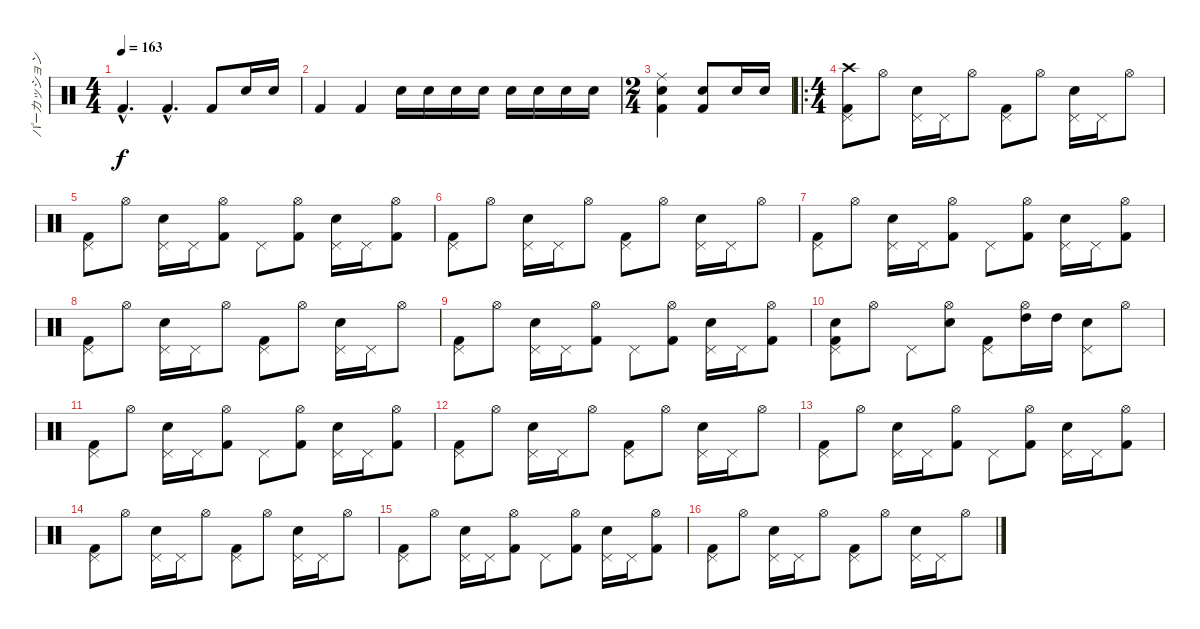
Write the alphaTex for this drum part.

\track ("パーカッション" "パーカッション") {instrument percussion}
\staff {score}
\articulation defaults
\ts (4 4)
\tempo 163
\clef neutral
\ks c "Kick (hit) 2"{hac}.4{d dy f} "Kick (hit) 2"{hac}.4{d} "Kick (hit) 2".8 "Snare (hit) 2".16 "Snare (hit) 2".16
|
"Kick (hit) 2".4 "Kick (hit) 2".4 "Snare (hit) 2".16 "Snare (hit) 2".16 "Snare (hit) 2".16 "Snare (hit) 2".16 "Snare (hit) 2".16 "Snare (hit) 2".16 "Snare (hit) 2".16 "Snare (hit) 2".16 |
\ts (2 4)
("Ride (middle)" "Snare (hit) 2" "Kick (hit) 2").4 ("Snare (hit) 2" "Kick (hit) 2").8 "Snare (hit) 2".16 "Snare (hit) 2".16 |
\ro
\ts (4 4)
("Crash high (hit)" "Pedal Hi-Hat (hit)" "Kick (hit) 2").8 "Hi-Hat (open)".8 ("Pedal Hi-Hat (hit)" "Snare (hit) 2").16 "Pedal Hi-Hat (hit)".16 "Hi-Hat (open)".8 ("Pedal Hi-Hat (hit)" "Kick (hit) 2").8 "Hi-Hat (open)".8 ("Pedal Hi-Hat (hit)" "Snare (hit) 2").16 "Pedal Hi-Hat (hit)".16 "Hi-Hat (open)".8 |
("Pedal Hi-Hat (hit)" "Kick (hit) 2").8 "Hi-Hat (open)".8 ("Pedal Hi-Hat (hit)" "Snare (hit) 2").16 "Pedal Hi-Hat (hit)".16 ("Hi-Hat (open)" "Kick (hit) 2").8 "Pedal Hi-Hat (hit)".8 ("Hi-Hat (open)" "Kick (hit) 2").8 ("Pedal Hi-Hat (hit)" "Snare (hit) 2").16 "Pedal Hi-Hat (hit)".16 ("Hi-Hat (open)" "Kick (hit) 2").8 |
("Pedal Hi-Hat (hit)" "Kick (hit) 2").8 "Hi-Hat (open)".8 ("Pedal Hi-Hat (hit)" "Snare (hit) 2").16 "Pedal Hi-Hat (hit)".16 "Hi-Hat (open)".8 ("Pedal Hi-Hat (hit)" "Kick (hit) 2").8 "Hi-Hat (open)".8 ("Pedal Hi-Hat (hit)" "Snare (hit) 2").16 "Pedal Hi-Hat (hit)".16 "Hi-Hat (open)".8 |
("Pedal Hi-Hat (hit)" "Kick (hit) 2").8 "Hi-Hat (open)".8 ("Pedal Hi-Hat (hit)" "Snare (hit) 2").16 "Pedal Hi-Hat (hit)".16 ("Hi-Hat (open)" "Kick (hit) 2").8 "Pedal Hi-Hat (hit)".8 ("Hi-Hat (open)" "Kick (hit) 2").8 ("Pedal Hi-Hat (hit)" "Snare (hit) 2").16 "Pedal Hi-Hat (hit)".16 ("Hi-Hat (open)" "Kick (hit) 2").8 |
("Pedal Hi-Hat (hit)" "Kick (hit) 2").8 "Hi-Hat (open)".8 ("Pedal Hi-Hat (hit)" "Snare (hit) 2").16 "Pedal Hi-Hat (hit)".16 "Hi-Hat (open)".8 ("Pedal Hi-Hat (hit)" "Kick (hit) 2").8 "Hi-Hat (open)".8 ("Pedal Hi-Hat (hit)" "Snare (hit) 2").16 "Pedal Hi-Hat (hit)".16 "Hi-Hat (open)".8 |
("Pedal Hi-Hat (hit)" "Kick (hit) 2").8 "Hi-Hat (open)".8 ("Pedal Hi-Hat (hit)" "Snare (hit) 2").16 "Pedal Hi-Hat (hit)".16 ("Hi-Hat (open)" "Kick (hit) 2").8 "Pedal Hi-Hat (hit)".8 ("Hi-Hat (open)" "Kick (hit) 2").8 ("Pedal Hi-Hat (hit)" "Snare (hit) 2").16 "Pedal Hi-Hat (hit)".16 ("Hi-Hat (open)" "Kick (hit) 2").8 |
("Pedal Hi-Hat (hit)" "Snare (hit) 2" "Kick (hit) 2").8 "Hi-Hat (open)".8 "Pedal Hi-Hat (hit)".8 ("Hi-Hat (open)" "Snare (hit) 2").8 ("Pedal Hi-Hat (hit)" "Kick (hit) 2").8 ("Hi-Hat (open)" "High Tom (hit)").16 "High Tom (hit)".16 ("Pedal Hi-Hat (hit)" "Snare (hit) 2").8 "Hi-Hat (open)".8 |
("Pedal Hi-Hat (hit)" "Kick (hit) 2").8 "Hi-Hat (open)".8 ("Pedal Hi-Hat (hit)" "Snare (hit) 2").16 "Pedal Hi-Hat (hit)".16 ("Hi-Hat (open)" "Kick (hit) 2").8 "Pedal Hi-Hat (hit)".8 ("Hi-Hat (open)" "Kick (hit) 2").8 ("Pedal Hi-Hat (hit)" "Snare (hit) 2").16 "Pedal Hi-Hat (hit)".16 ("Hi-Hat (open)" "Kick (hit) 2").8 |
("Pedal Hi-Hat (hit)" "Kick (hit) 2").8 "Hi-Hat (open)".8 ("Pedal Hi-Hat (hit)" "Snare (hit) 2").16 "Pedal Hi-Hat (hit)".16 "Hi-Hat (open)".8 ("Pedal Hi-Hat (hit)" "Kick (hit) 2").8 "Hi-Hat (open)".8 ("Pedal Hi-Hat (hit)" "Snare (hit) 2").16 "Pedal Hi-Hat (hit)".16 "Hi-Hat (open)".8 |
("Pedal Hi-Hat (hit)" "Kick (hit) 2").8 "Hi-Hat (open)".8 ("Pedal Hi-Hat (hit)" "Snare (hit) 2").16 "Pedal Hi-Hat (hit)".16 ("Hi-Hat (open)" "Kick (hit) 2").8 "Pedal Hi-Hat (hit)".8 ("Hi-Hat (open)" "Kick (hit) 2").8 ("Pedal Hi-Hat (hit)" "Snare (hit) 2").16 "Pedal Hi-Hat (hit)".16 ("Hi-Hat (open)" "Kick (hit) 2").8 |
("Pedal Hi-Hat (hit)" "Kick (hit) 2").8 "Hi-Hat (open)".8 ("Pedal Hi-Hat (hit)" "Snare (hit) 2").16 "Pedal Hi-Hat (hit)".16 "Hi-Hat (open)".8 ("Pedal Hi-Hat (hit)" "Kick (hit) 2").8 "Hi-Hat (open)".8 ("Pedal Hi-Hat (hit)" "Snare (hit) 2").16 "Pedal Hi-Hat (hit)".16 "Hi-Hat (open)".8 |
("Pedal Hi-Hat (hit)" "Kick (hit) 2").8 "Hi-Hat (open)".8 ("Pedal Hi-Hat (hit)" "Snare (hit) 2").16 "Pedal Hi-Hat (hit)".16 ("Hi-Hat (open)" "Kick (hit) 2").8 "Pedal Hi-Hat (hit)".8 ("Hi-Hat (open)" "Kick (hit) 2").8 ("Pedal Hi-Hat (hit)" "Snare (hit) 2").16 "Pedal Hi-Hat (hit)".16 ("Hi-Hat (open)" "Kick (hit) 2").8 |
("Pedal Hi-Hat (hit)" "Kick (hit) 2").8 "Hi-Hat (open)".8 ("Pedal Hi-Hat (hit)" "Snare (hit) 2").16 "Pedal Hi-Hat (hit)".16 "Hi-Hat (open)".8 ("Pedal Hi-Hat (hit)" "Kick (hit) 2").8 "Hi-Hat (open)".8 ("Pedal Hi-Hat (hit)" "Snare (hit) 2").16 "Pedal Hi-Hat (hit)".16 "Hi-Hat (open)".8
